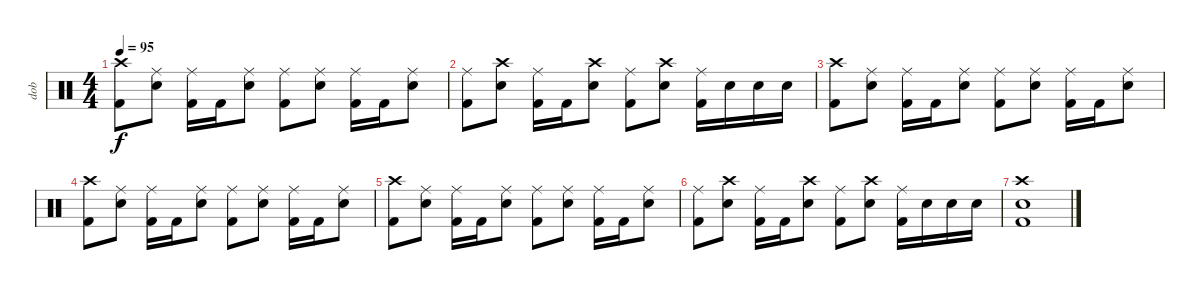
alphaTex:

\track ("dob" "dob") {instrument percussion}
\staff {score}
\articulation defaults
\ts (4 4)
\tempo 95
\clef neutral
\ks c
("Crash high (hit)" "Kick (hit) 2").8{dy f} ("Ride (middle)" "Snare (hit) 2").8 ("Ride (middle)" "Kick (hit) 2").16 "Kick (hit) 2".16 ("Ride (middle)" "Snare (hit) 2").8 ("Ride (middle)" "Kick (hit) 2").8 ("Ride (middle)" "Snare (hit) 2").8 ("Ride (middle)" "Kick (hit) 2").16 "Kick (hit) 2".16 ("Ride (middle)" "Snare (hit) 2").8 |
("Ride (middle)" "Kick (hit) 2").8 ("Crash high (hit)" "Snare (hit) 2").8 ("Ride (middle)" "Kick (hit) 2").16 "Kick (hit) 2".16 ("Crash high (hit)" "Snare (hit) 2").8 ("Ride (middle)" "Kick (hit) 2").8 ("Crash high (hit)" "Snare (hit) 2").8 ("Ride (middle)" "Kick (hit) 2").16 "Snare (hit) 2".16 "Snare (hit) 2".16 "Snare (hit) 2".16 |
("Crash high (hit)" "Kick (hit) 2").8 ("Ride (middle)" "Snare (hit) 2").8 ("Ride (middle)" "Kick (hit) 2").16 "Kick (hit) 2".16 ("Ride (middle)" "Snare (hit) 2").8 ("Ride (middle)" "Kick (hit) 2").8 ("Ride (middle)" "Snare (hit) 2").8 ("Ride (middle)" "Kick (hit) 2").16 "Kick (hit) 2".16 ("Ride (middle)" "Snare (hit) 2").8 |
("Crash high (hit)" "Kick (hit) 2").8 ("Ride (middle)" "Snare (hit) 2").8 ("Ride (middle)" "Kick (hit) 2").16 "Kick (hit) 2".16 ("Ride (middle)" "Snare (hit) 2").8 ("Ride (middle)" "Kick (hit) 2").8 ("Ride (middle)" "Snare (hit) 2").8 ("Ride (middle)" "Kick (hit) 2").16 "Kick (hit) 2".16 ("Ride (middle)" "Snare (hit) 2").8 |
("Crash high (hit)" "Kick (hit) 2").8 ("Ride (middle)" "Snare (hit) 2").8 ("Ride (middle)" "Kick (hit) 2").16 "Kick (hit) 2".16 ("Ride (middle)" "Snare (hit) 2").8 ("Ride (middle)" "Kick (hit) 2").8 ("Ride (middle)" "Snare (hit) 2").8 ("Ride (middle)" "Kick (hit) 2").16 "Kick (hit) 2".16 ("Ride (middle)" "Snare (hit) 2").8 |
("Ride (middle)" "Kick (hit) 2").8 ("Crash high (hit)" "Snare (hit) 2").8 ("Ride (middle)" "Kick (hit) 2").16 "Kick (hit) 2".16 ("Crash high (hit)" "Snare (hit) 2").8 ("Ride (middle)" "Kick (hit) 2").8 ("Crash high (hit)" "Snare (hit) 2").8 ("Ride (middle)" "Kick (hit) 2").16 "Snare (hit) 2".16 "Snare (hit) 2".16 "Snare (hit) 2".16 |
("Crash high (hit)" "Snare (hit) 2" "Kick (hit) 2").1{volume 0}
